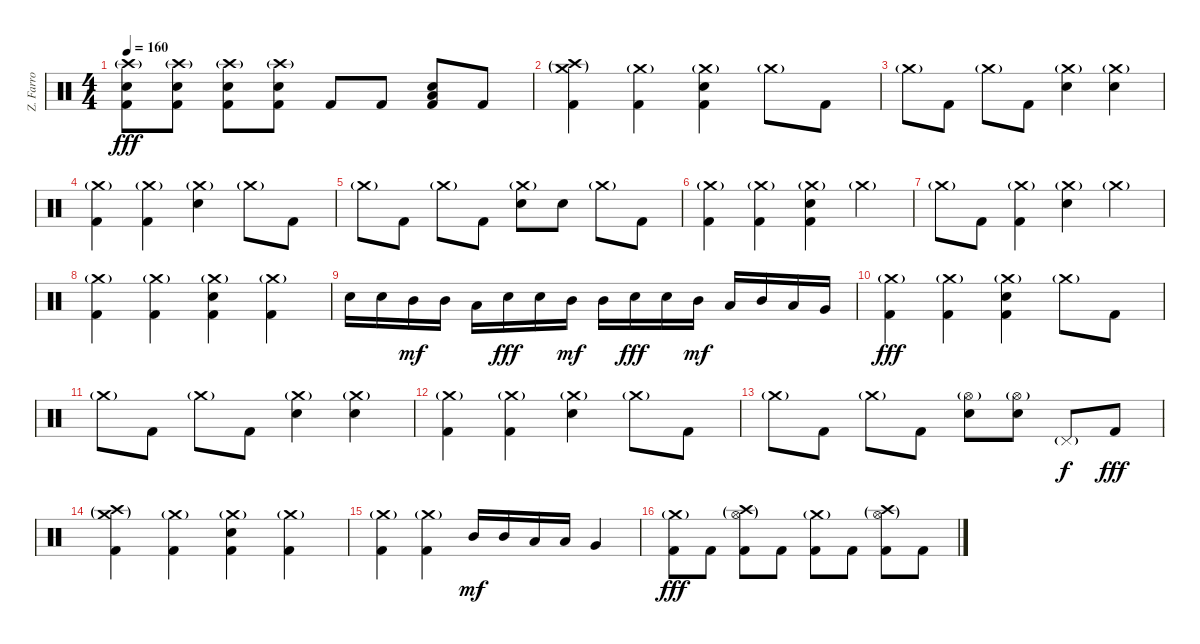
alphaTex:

\track ("Z. Farro" "Z. Farro") {instrument percussion}
\staff {score}
\articulation defaults
\ts (4 4)
\tempo 160
\clef neutral
\ks c
("Crash high (hit)"{g} "Electric Snare (hit)" "Kick (hit) 2").8{dy fff} ("Crash high (hit)"{g} "Electric Snare (hit)" "Kick (hit) 2").8 ("Crash high (hit)"{g} "Electric Snare (hit)" "Kick (hit) 2").8 ("Crash high (hit)"{g} "Electric Snare (hit)" "Kick (hit) 2").8 "Kick (hit) 2".8 "Kick (hit) 2".8 ("Electric Snare (hit)" "Low Tom (hit)" "Kick (hit) 2").8 "Kick (hit) 2".8 |
("Crash medium (hit)"{g} "Crash high (hit)"{g} "Kick (hit) 2").4 ("Crash medium (hit)"{g} "Kick (hit) 2").4 ("Crash medium (hit)"{g} "Electric Snare (hit)" "Kick (hit) 2").4 "Crash medium (hit)"{g}.8 "Kick (hit) 2".8 |
"Crash medium (hit)"{g}.8 "Kick (hit) 2".8 "Crash medium (hit)"{g}.8 "Kick (hit) 2".8 ("Crash medium (hit)"{g} "Electric Snare (hit)").4 ("Crash medium (hit)"{g} "Electric Snare (hit)").4 |
("Crash medium (hit)"{g} "Kick (hit) 2").4 ("Crash medium (hit)"{g} "Kick (hit) 2").4 ("Crash medium (hit)"{g} "Electric Snare (hit)").4 "Crash medium (hit)"{g}.8 "Kick (hit) 2".8 |
"Crash medium (hit)"{g}.8 "Kick (hit) 2".8 "Crash medium (hit)"{g}.8 "Kick (hit) 2".8 ("Crash medium (hit)"{g} "Electric Snare (hit)").8 "Electric Snare (hit)".8 "Crash medium (hit)"{g}.8 "Kick (hit) 2".8 |
("Crash medium (hit)"{g} "Kick (hit) 2").4 ("Crash medium (hit)"{g} "Kick (hit) 2").4 ("Crash medium (hit)"{g} "Electric Snare (hit)" "Kick (hit) 2").4 "Crash medium (hit)"{g}.4 |
"Crash medium (hit)"{g}.8 "Kick (hit) 2".8 ("Crash medium (hit)"{g} "Kick (hit) 2").4 ("Crash medium (hit)"{g} "Electric Snare (hit)").4 "Crash medium (hit)"{g}.4 |
("Crash medium (hit)"{g} "Kick (hit) 2").4 ("Crash medium (hit)"{g} "Kick (hit) 2").4 ("Crash medium (hit)"{g} "Electric Snare (hit)" "Kick (hit) 2").4 ("Crash medium (hit)"{g} "Kick (hit) 2").4 |
"Electric Snare (hit)".16 "Electric Snare (hit)".16 "Mid Tom (hit)".16{dy mf} "Mid Tom (hit)".16 "Low Tom (hit)".16 "Electric Snare (hit)".16{dy fff} "Electric Snare (hit)".16 "Mid Tom (hit)".16{dy mf} "Mid Tom (hit)".16 "Electric Snare (hit)".16{dy fff} "Electric Snare (hit)".16 "Mid Tom (hit)".16{dy mf} "Low Tom (hit)".16 "Mid Tom (hit)".16 "Low Tom (hit)".16 "Very Low Tom (hit)".16 |
("Crash medium (hit)"{g} "Kick (hit) 2").4{dy fff} ("Crash medium (hit)"{g} "Kick (hit) 2").4 ("Crash medium (hit)"{g} "Electric Snare (hit)" "Kick (hit) 2").4 "Crash medium (hit)"{g}.8 "Kick (hit) 2".8 |
"Crash medium (hit)"{g}.8 "Kick (hit) 2".8 "Crash medium (hit)"{g}.8 "Kick (hit) 2".8 ("Crash medium (hit)"{g} "Electric Snare (hit)").4 ("Crash medium (hit)"{g} "Electric Snare (hit)").4 |
("Crash medium (hit)"{g} "Kick (hit) 2").4 ("Crash medium (hit)"{g} "Kick (hit) 2").4 ("Crash medium (hit)"{g} "Electric Snare (hit)").4 "Crash medium (hit)"{g}.8 "Kick (hit) 2".8 |
"Crash medium (hit)"{g}.8 "Kick (hit) 2".8 "Crash medium (hit)"{g}.8 "Kick (hit) 2".8 ("Hi-Hat (open)"{g} "Electric Snare (hit)").8 ("Hi-Hat (open)"{g} "Electric Snare (hit)").8 "Pedal Hi-Hat (hit)"{g}.8{dy f} "Kick (hit) 2".8{dy fff} |
("Crash medium (hit)"{g} "Crash high (hit)"{g} "Kick (hit) 2").4 ("Crash medium (hit)"{g} "Kick (hit) 2").4 ("Crash medium (hit)"{g} "Electric Snare (hit)" "Kick (hit) 2").4 ("Crash medium (hit)"{g} "Kick (hit) 2").4 |
("Crash medium (hit)"{g} "Kick (hit) 2").4 ("Crash medium (hit)"{g} "Kick (hit) 2").4 "Mid Tom (hit)".16{dy mf} "Mid Tom (hit)".16 "Low Tom (hit)".16 "Low Tom (hit)".16 "Very Low Tom (hit)".4 |
("Crash medium (hit)"{g} "Kick (hit) 2").8{dy fff} "Kick (hit) 2".8 ("Crash high (hit)"{g} "Hi-Hat (open)"{g} "Kick (hit) 2").8 "Kick (hit) 2".8 ("Crash medium (hit)"{g} "Kick (hit) 2").8 "Kick (hit) 2".8 ("Crash high (hit)"{g} "Hi-Hat (open)"{g} "Kick (hit) 2").8 "Kick (hit) 2".8
